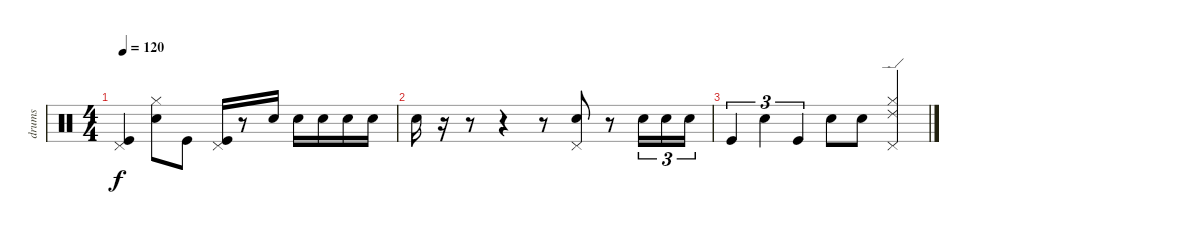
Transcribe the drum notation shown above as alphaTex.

\track ("drums" "drums") {instrument percussion}
\staff {score}
\articulation defaults
\ts (4 4)
\tempo 120
\clef neutral
\ks c
("Pedal Hi-Hat (hit)" "Kick (hit)").4{dy f} ("Hi-Hat (closed)" "Snare (hit) 2").8 "Kick (hit)".8 ("Pedal Hi-Hat (hit)" "Kick (hit)").16 r.8 "Snare (hit) 2".16 "Snare (hit) 2".16 "Snare (hit) 2".16 "Snare (hit) 2".16 "Snare (hit) 2".16 |
"Snare (hit) 2".16 r.16 r.8 r.4 r.8 ("Pedal Hi-Hat (hit)" "Snare (hit) 2").8 r.8 "Snare (hit) 2".16{tu (3 2)} "Snare (hit) 2".16{tu (3 2)} "Snare (hit) 2".16{tu (3 2)} |
"Kick (hit)".4{tu (3 2)} "Snare (hit) 2".4{tu (3 2)} "Kick (hit)".4{tu (3 2)} "Snare (hit) 2".8 "Snare (hit) 2".8 ("Pedal Hi-Hat (hit)" "Hi-Hat (closed)" "Ride (edge) 2").4
